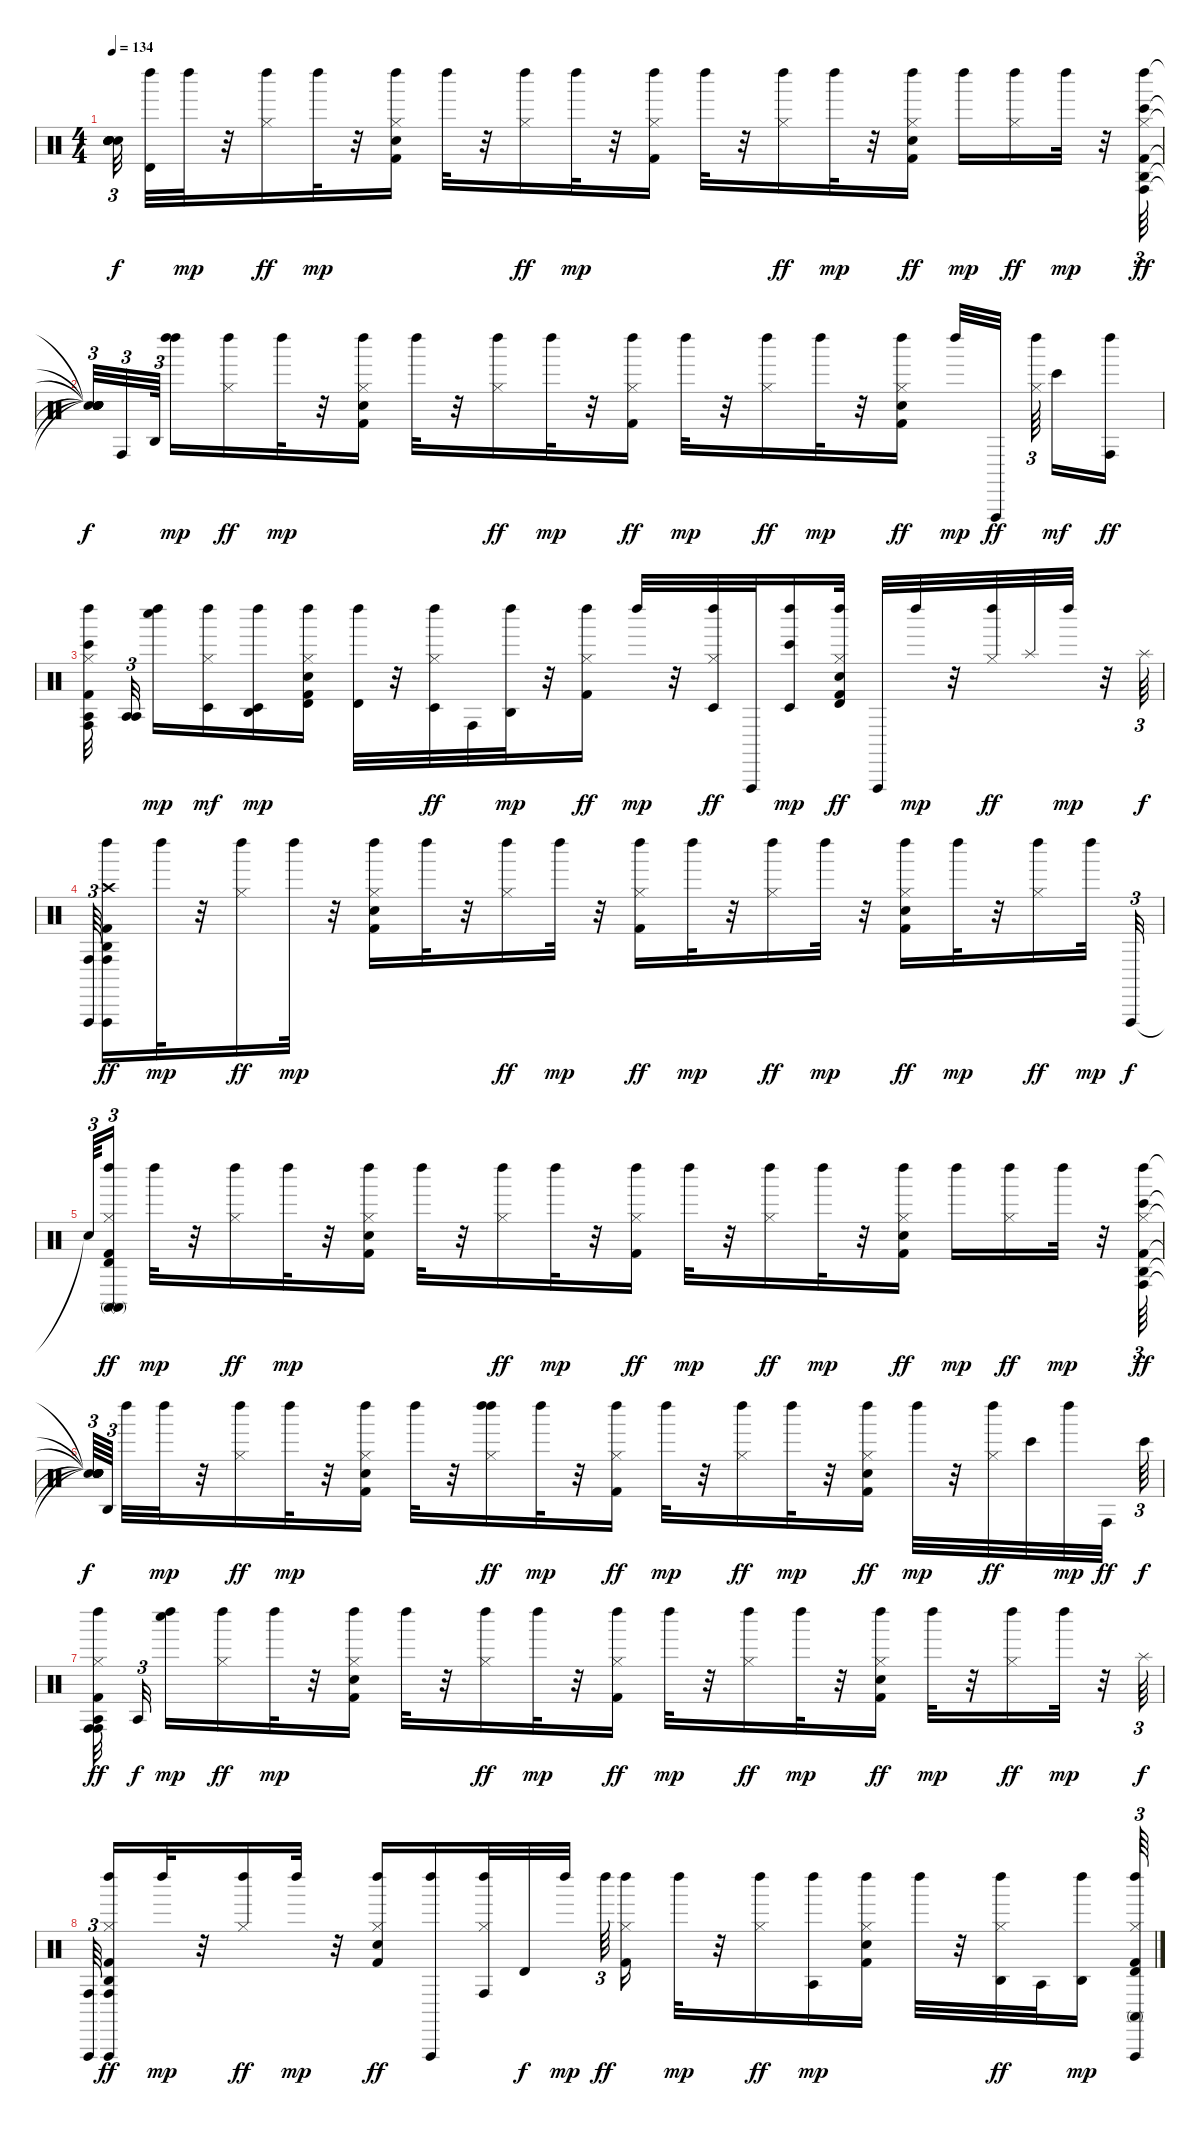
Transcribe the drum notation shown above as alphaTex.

\track "" {instrument percussion}
\staff {score}
\articulation defaults
\ts (4 4)
\tempo 134
\clef neutral
\ks c
("Snare (hit)"{t} "Snare (hit)"{t} "Snare (hit)"{t} "Snare (hit)"{t} "Snare (hit)"{t} "Snare (hit)"{t}).32{tu (3 2) dy f beam splitsecondary} ("Timbale high (hit)" "Left Maraca (hit)").32 "Left Maraca (hit)".32{dy mp} r.32 ("Hi-Hat (closed)" "Left Maraca (hit)").16{dy ff} "Left Maraca (hit)".32{dy mp} r.32 ("Kick (hit) 2" "Snare (hit) 2" "Hi-Hat (closed)" "Left Maraca (hit)").16 "Left Maraca (hit)".32 r.32 ("Hi-Hat (closed)" "Left Maraca (hit)").16{dy ff} "Left Maraca (hit)".32{dy mp} r.32 ("Kick (hit) 2" "Hi-Hat (closed)" "Left Maraca (hit)").16 "Left Maraca (hit)".32 r.32 ("Left Maraca (hit)" "Hi-Hat (closed)").16{dy ff} "Left Maraca (hit)".32{dy mp} r.32 ("Left Maraca (hit)" "Hi-Hat (closed)" "Snare (hit) 2" "Kick (hit) 2").16{dy ff} "Left Maraca (hit)".16{dy mp} ("Left Maraca (hit)" "Hi-Hat (closed)").16{dy ff} "Left Maraca (hit)".32{dy mp} r.32 ("Bongo High (hit)" "Kick (hit) 2" "Hi-Hat (closed)" "Left Maraca (hit)" "Agogo high (hit)" "Conga high (hit)").64{tu (3 2) dy ff} |
("Snare (hit)"{t} "Snare (hit)"{t} "Snare (hit)"{t} "Snare (hit)"{t} "Snare (hit)"{t} "Snare (hit)"{t}).32{tu (3 2) dy f} "Conga high (hit)".32{tu (3 2)} "Agogo high (hit)".64{tu (3 2) beam splitsecondary} ("Left Maraca (hit)" "Left Maraca (hit)").16{dy mp} ("Hi-Hat (closed)" "Left Maraca (hit)").16{dy ff} "Left Maraca (hit)".32{dy mp} r.32 ("Kick (hit) 2" "Snare (hit) 2" "Hi-Hat (closed)" "Left Maraca (hit)").16 "Left Maraca (hit)".32 r.32 ("Hi-Hat (closed)" "Left Maraca (hit)").16{dy ff} "Left Maraca (hit)".32{dy mp} r.32 ("Left Maraca (hit)" "Hi-Hat (closed)" "Kick (hit) 2").16{dy ff} "Left Maraca (hit)".32{dy mp} r.32 ("Left Maraca (hit)" "Hi-Hat (closed)").16{dy ff} "Left Maraca (hit)".32{dy mp} r.32 ("Left Maraca (hit)" "Hi-Hat (closed)" "Snare (hit) 2" "Kick (hit) 2").16{dy ff} "Left Maraca (hit)".32{dy mp} "Vibraslap (hit)".32{dy ff beam splitsecondary} ("Left Maraca (hit)" "Hi-Hat (closed)").64{tu (3 2) beam splitsecondary} "Bongo High (hit)".16{dy mf} ("Left Maraca (hit)" "Conga high (hit)").16{dy ff} |
("Bongo High (hit)" "Kick (hit) 2" "Hi-Hat (closed)" "Left Maraca (hit)" "Agogo tow (hit)" "Conga high (hit)").32{beam splitsecondary} ("Agogo tow (hit)" "Agogo tow (hit)").32{tu (3 2) beam splitsecondary} ("Whistle low (hit)" "Left Maraca (hit)").16{dy mp} ("Hi-Hat (closed)" "Timbale low (hit)" "Left Maraca (hit)").16{dy mf} ("Agogo high (hit)" "Left Maraca (hit)" "Timbale low (hit)").16{dy mp} ("Kick (hit) 2" "Snare (hit) 2" "Hi-Hat (closed)" "Timbale high (hit)" "Left Maraca (hit)").16 ("Left Maraca (hit)" "Timbale high (hit)").32 r.32 ("Hi-Hat (closed)" "Timbale low (hit)" "Left Maraca (hit)").32{dy ff} "Conga high (hit)".32 ("Agogo high (hit)" "Left Maraca (hit)").32{dy mp} r.32 ("Left Maraca (hit)" "Hi-Hat (closed)" "Kick (hit) 2").16{dy ff} "Left Maraca (hit)".32{dy mp} r.32 ("Left Maraca (hit)" "Timbale low (hit)" "Hi-Hat (closed)").32{dy ff} "Vibraslap (hit)".32 ("Bongo High (hit)" "Timbale low (hit)" "Left Maraca (hit)").16{dy mp} ("Left Maraca (hit)" "Timbale high (hit)" "Hi-Hat (closed)" "Snare (hit) 2" "Kick (hit) 2").32{dy ff} "Vibraslap (hit)".32 "Left Maraca (hit)".32{dy mp} r.32 ("Left Maraca (hit)" "Hi-Hat (closed)").32{dy ff} "Splash (hit)".32 "Left Maraca (hit)".32{dy mp} r.32 "Splash (hit)".64{tu (3 2) dy f} |
("Conga high (hit)" "Vibraslap (hit)").64{tu (3 2) beam splitsecondary} ("Agogo high (hit)" "Kick (hit) 2" "Crash high (hit)" "Left Maraca (hit)" "Conga high (hit)" "Vibraslap (hit)").16{dy ff} "Left Maraca (hit)".32{dy mp} r.32 ("Hi-Hat (closed)" "Left Maraca (hit)").16{dy ff} "Left Maraca (hit)".32{dy mp} r.32 ("Kick (hit) 2" "Snare (hit) 2" "Hi-Hat (closed)" "Left Maraca (hit)").16 "Left Maraca (hit)".32 r.32 ("Hi-Hat (closed)" "Left Maraca (hit)").16{dy ff} "Left Maraca (hit)".32{dy mp} r.32 ("Left Maraca (hit)" "Hi-Hat (closed)" "Kick (hit) 2").16{dy ff} "Left Maraca (hit)".32{dy mp} r.32 ("Left Maraca (hit)" "Hi-Hat (closed)").16{dy ff} "Left Maraca (hit)".32{dy mp} r.32 ("Left Maraca (hit)" "Hi-Hat (closed)" "Snare (hit) 2" "Kick (hit) 2").16{dy ff} "Left Maraca (hit)".32{dy mp} r.32 ("Left Maraca (hit)" "Hi-Hat (closed)").16{dy ff} "Left Maraca (hit)".32{dy mp} "Vibraslap (hit)".32{tu (3 2) dy f} |
"Snare (hit)"{t}.64{tu (3 2)} ("Conga high (mute)" "Kick (hit) 2" "Hi-Hat (closed)" "Left Maraca (hit)" "Timbale high (hit)" "Conga high (mute)").16{tu (3 2) dy ff beam splitsecondary} "Left Maraca (hit)".32{dy mp} r.32 ("Hi-Hat (closed)" "Left Maraca (hit)").16{dy ff} "Left Maraca (hit)".32{dy mp} r.32 ("Kick (hit) 2" "Snare (hit) 2" "Hi-Hat (closed)" "Left Maraca (hit)").16 "Left Maraca (hit)".32 r.32 ("Left Maraca (hit)" "Hi-Hat (closed)").16{dy ff} "Left Maraca (hit)".32{dy mp} r.32 ("Left Maraca (hit)" "Hi-Hat (closed)" "Kick (hit) 2").16{dy ff} "Left Maraca (hit)".32{dy mp} r.32 ("Left Maraca (hit)" "Hi-Hat (closed)").16{dy ff} "Left Maraca (hit)".32{dy mp} r.32 ("Left Maraca (hit)" "Hi-Hat (closed)" "Snare (hit) 2" "Kick (hit) 2").16{dy ff} "Left Maraca (hit)".16{dy mp} ("Hi-Hat (closed)" "Left Maraca (hit)").16{dy ff} "Left Maraca (hit)".32{dy mp} r.32 ("Bongo High (hit)" "Kick (hit) 2" "Hi-Hat (closed)" "Left Maraca (hit)" "Agogo high (hit)" "Conga high (hit)").64{tu (3 2) dy ff} |
("Snare (hit)"{t} "Snare (hit)"{t} "Snare (hit)"{t} "Snare (hit)"{t} "Snare (hit)"{t} "Snare (hit)"{t}).64{tu (3 2) dy f} "Agogo high (hit)".64{tu (3 2) beam splitsecondary} "Left Maraca (hit)".32 "Left Maraca (hit)".32{dy mp} r.32 ("Hi-Hat (closed)" "Left Maraca (hit)").16{dy ff} "Left Maraca (hit)".32{dy mp} r.32 ("Kick (hit) 2" "Snare (hit) 2" "Hi-Hat (closed)" "Left Maraca (hit)").16 "Left Maraca (hit)".32 r.32 ("Left Maraca (hit)" "Hi-Hat (closed)" "Left Maraca (hit)").16{dy ff} "Left Maraca (hit)".32{dy mp} r.32 ("Left Maraca (hit)" "Hi-Hat (closed)" "Kick (hit) 2").16{dy ff} "Left Maraca (hit)".32{dy mp} r.32 ("Left Maraca (hit)" "Hi-Hat (closed)").16{dy ff} "Left Maraca (hit)".32{dy mp} r.32 ("Left Maraca (hit)" "Hi-Hat (closed)" "Snare (hit) 2" "Kick (hit) 2").16{dy ff} "Left Maraca (hit)".32{dy mp} r.32 ("Hi-Hat (closed)" "Left Maraca (hit)").32{dy ff} "Bongo High (hit)".32 "Left Maraca (hit)".32{dy mp} "Conga high (hit)".32{dy ff beam splitsecondary} "Bongo High (hit)".64{tu (3 2) dy f} |
("Conga high (hit)" "Kick (hit) 2" "Hi-Hat (closed)" "Left Maraca (hit)" "Agogo tow (hit)" "Conga high (hit)").32{dy ff beam splitsecondary} "Agogo tow (hit)".32{tu (3 2) dy f beam splitsecondary} ("Whistle low (hit)" "Left Maraca (hit)").16{dy mp} ("Hi-Hat (closed)" "Left Maraca (hit)").16{dy ff} "Left Maraca (hit)".32{dy mp} r.32 ("Kick (hit) 2" "Snare (hit) 2" "Hi-Hat (closed)" "Left Maraca (hit)").16 "Left Maraca (hit)".32 r.32 ("Left Maraca (hit)" "Hi-Hat (closed)").16{dy ff} "Left Maraca (hit)".32{dy mp} r.32 ("Left Maraca (hit)" "Hi-Hat (closed)" "Kick (hit) 2").16{dy ff} "Left Maraca (hit)".32{dy mp} r.32 ("Left Maraca (hit)" "Hi-Hat (closed)").16{dy ff} "Left Maraca (hit)".32{dy mp} r.32 ("Left Maraca (hit)" "Hi-Hat (closed)" "Snare (hit) 2" "Kick (hit) 2").16{dy ff} "Left Maraca (hit)".32{dy mp} r.32 ("Hi-Hat (closed)" "Left Maraca (hit)").16{dy ff} "Left Maraca (hit)".32{dy mp} r.32 "Splash (hit)".64{tu (3 2) dy f} |
("Conga high (hit)" "Vibraslap (hit)").64{tu (3 2) beam splitsecondary} ("Agogo high (hit)" "Kick (hit) 2" "Hi-Hat (closed)" "Left Maraca (hit)" "Conga high (hit)" "Vibraslap (hit)").16{dy ff} "Left Maraca (hit)".32{dy mp} r.32 ("Hi-Hat (closed)" "Left Maraca (hit)").16{dy ff} "Left Maraca (hit)".32{dy mp} r.32 ("Left Maraca (hit)" "Hi-Hat (closed)" "Snare (hit) 2" "Kick (hit) 2").16{dy ff} ("Left Maraca (hit)" "Vibraslap (hit)").16 ("Conga high (hit)" "Left Maraca (hit)" "Hi-Hat (closed)").32 "Timbale high (hit)".32{dy f} "Left Maraca (hit)".32{dy mp beam splitsecondary} "Left Maraca (hit)".64{tu (3 2) dy ff} ("Left Maraca (hit)" "Hi-Hat (closed)" "Kick (hit) 2").16 "Left Maraca (hit)".32{dy mp} r.32 ("Left Maraca (hit)" "Hi-Hat (closed)").16{dy ff} ("Agogo tow (hit)" "Left Maraca (hit)").16{dy mp} ("Kick (hit) 2" "Snare (hit) 2" "Hi-Hat (closed)" "Left Maraca (hit)").16 "Left Maraca (hit)".32 r.32 ("Agogo high (hit)" "Hi-Hat (closed)" "Left Maraca (hit)").32{dy ff} "Agogo tow (hit)".32 ("Agogo high (hit)" "Left Maraca (hit)").16{dy mp beam splitsecondary} ("Vibraslap (hit)" "Conga high (mute)" "Kick (hit) 2" "Hi-Hat (closed)" "Left Maraca (hit)" "Timbale high (hit)").64{tu (3 2)}
